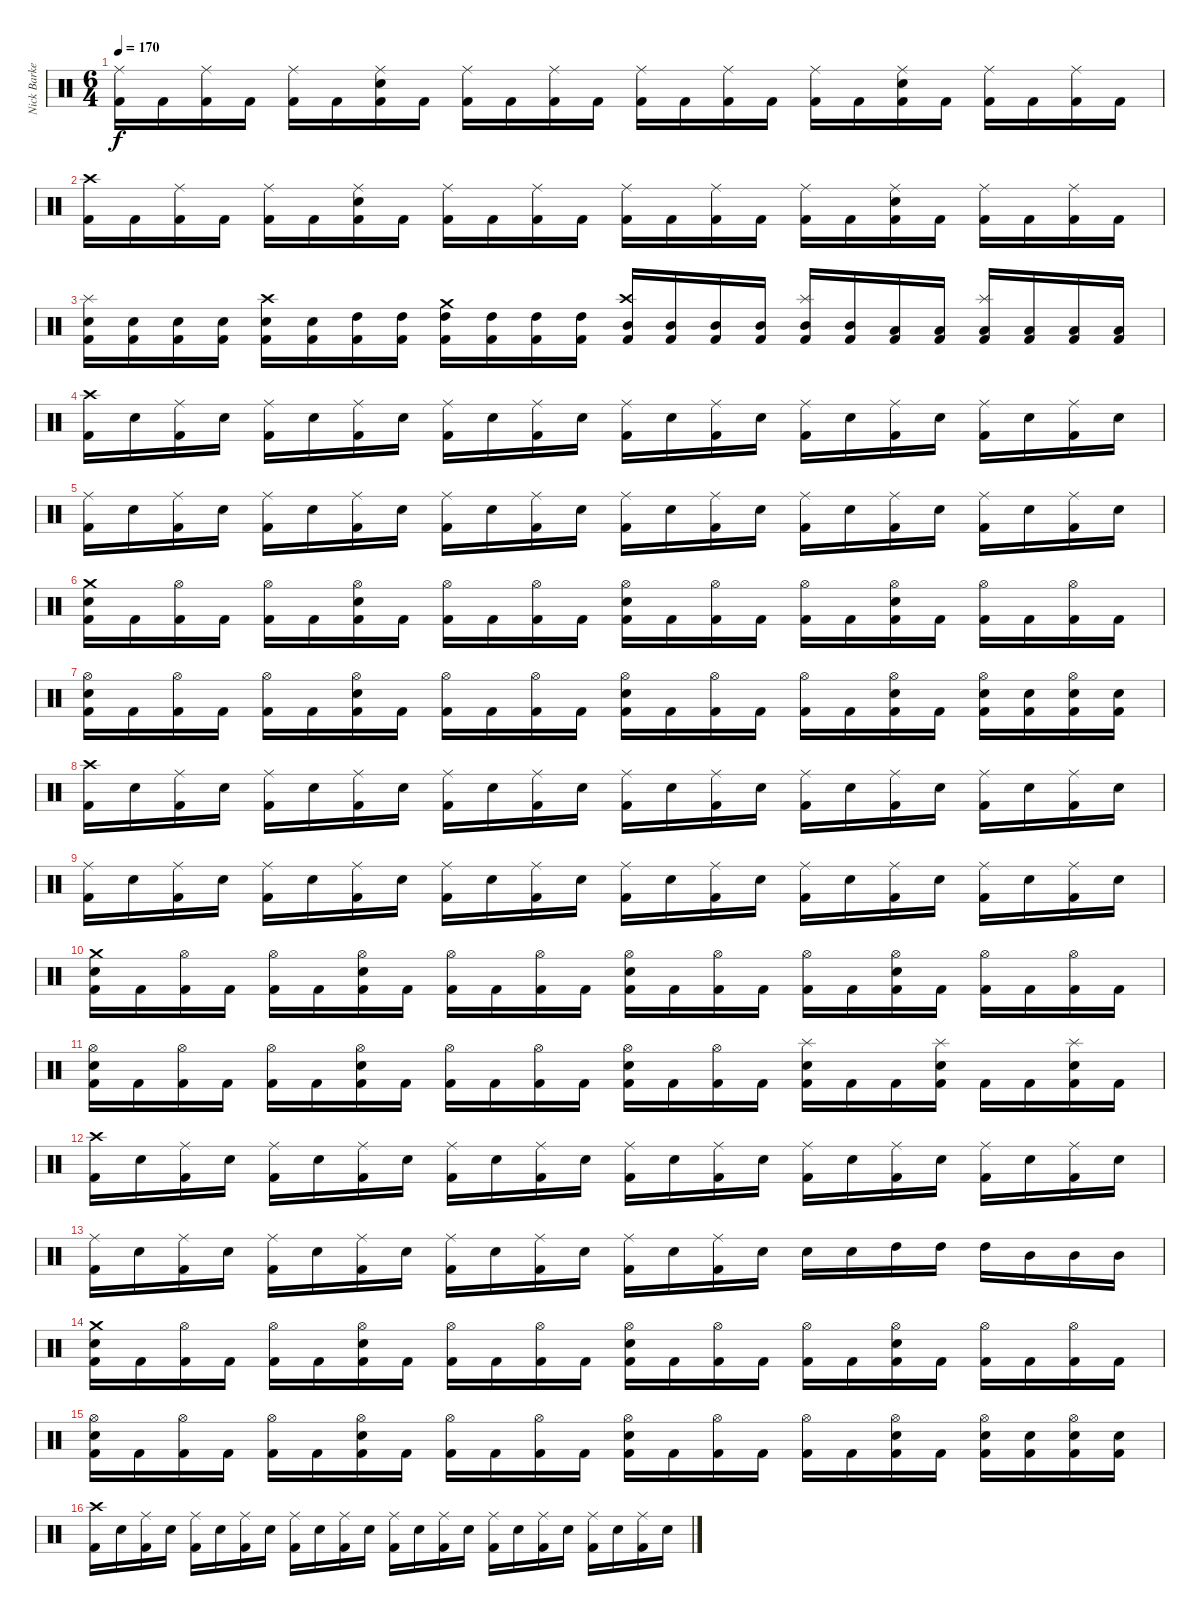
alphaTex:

\track ("Nick Barker" "Nick Barke") {instrument percussion}
\staff {score}
\articulation defaults
\ts (6 4)
\tempo 170
\clef neutral
\ks c
("Ride (middle)" "Kick (hit) 2").16{dy f} "Kick (hit) 2".16 ("Ride (middle)" "Kick (hit) 2").16 "Kick (hit) 2".16 ("Ride (middle)" "Kick (hit) 2").16 "Kick (hit) 2".16 ("Ride (middle)" "Electric Snare (hit)" "Kick (hit) 2").16 "Kick (hit) 2".16 ("Ride (middle)" "Kick (hit) 2").16 "Kick (hit) 2".16 ("Ride (middle)" "Kick (hit) 2").16 "Kick (hit) 2".16 ("Ride (middle)" "Kick (hit) 2").16 "Kick (hit) 2".16 ("Ride (middle)" "Kick (hit) 2").16 "Kick (hit) 2".16 ("Ride (middle)" "Kick (hit) 2").16 "Kick (hit) 2".16 ("Ride (middle)" "Electric Snare (hit)" "Kick (hit) 2").16 "Kick (hit) 2".16 ("Ride (middle)" "Kick (hit) 2").16 "Kick (hit) 2".16 ("Ride (middle)" "Kick (hit) 2").16 "Kick (hit) 2".16 |
("Crash high (hit)" "Kick (hit) 2").16 "Kick (hit) 2".16 ("Ride (middle)" "Kick (hit) 2").16 "Kick (hit) 2".16 ("Ride (middle)" "Kick (hit) 2").16 "Kick (hit) 2".16 ("Ride (middle)" "Electric Snare (hit)" "Kick (hit) 2").16 "Kick (hit) 2".16 ("Ride (middle)" "Kick (hit) 2").16 "Kick (hit) 2".16 ("Ride (middle)" "Kick (hit) 2").16 "Kick (hit) 2".16 ("Ride (middle)" "Kick (hit) 2").16 "Kick (hit) 2".16 ("Ride (middle)" "Kick (hit) 2").16 "Kick (hit) 2".16 ("Ride (middle)" "Kick (hit) 2").16 "Kick (hit) 2".16 ("Ride (middle)" "Electric Snare (hit)" "Kick (hit) 2").16 "Kick (hit) 2".16 ("Ride (middle)" "Kick (hit) 2").16 "Kick (hit) 2".16 ("Ride (middle)" "Kick (hit) 2").16 "Kick (hit) 2".16 |
("Splash (hit)" "Electric Snare (hit)" "Kick (hit) 2").16 ("Electric Snare (hit)" "Kick (hit) 2").16 ("Electric Snare (hit)" "Kick (hit) 2").16 ("Electric Snare (hit)" "Kick (hit) 2").16 ("Crash high (hit)" "Electric Snare (hit)" "Kick (hit) 2").16 ("Electric Snare (hit)" "Kick (hit) 2").16 ("High Tom (hit)" "Kick (hit) 2").16 ("High Tom (hit)" "Kick (hit) 2").16 ("Crash medium (hit)" "High Tom (hit)" "Kick (hit) 2").16 ("High Tom (hit)" "Kick (hit) 2").16 ("High Tom (hit)" "Kick (hit) 2").16 ("High Tom (hit)" "Kick (hit) 2").16 ("Crash high (hit)" "Mid Tom (hit)" "Kick (hit) 2").16 ("Mid Tom (hit)" "Kick (hit) 2").16 ("Mid Tom (hit)" "Kick (hit) 2").16 ("Mid Tom (hit)" "Kick (hit) 2").16 ("Splash (hit)" "Mid Tom (hit)" "Kick (hit) 2").16 ("Mid Tom (hit)" "Kick (hit) 2").16 ("Low Tom (hit)" "Kick (hit) 2").16 ("Low Tom (hit)" "Kick (hit) 2").16 ("Splash (hit)" "Low Tom (hit)" "Kick (hit) 2").16 ("Low Tom (hit)" "Kick (hit) 2").16 ("Low Tom (hit)" "Kick (hit) 2").16 ("Low Tom (hit)" "Kick (hit) 2").16 |
\section ("" "")
("Crash high (hit)" "Kick (hit) 2").16 "Electric Snare (hit)".16 ("Ride (middle)" "Kick (hit) 2").16 "Electric Snare (hit)".16 ("Ride (middle)" "Kick (hit) 2").16 "Electric Snare (hit)".16 ("Ride (middle)" "Kick (hit) 2").16 "Electric Snare (hit)".16 ("Ride (middle)" "Kick (hit) 2").16 "Electric Snare (hit)".16 ("Ride (middle)" "Kick (hit) 2").16 "Electric Snare (hit)".16 ("Ride (middle)" "Kick (hit) 2").16 "Electric Snare (hit)".16 ("Ride (middle)" "Kick (hit) 2").16 "Electric Snare (hit)".16 ("Ride (middle)" "Kick (hit) 2").16 "Electric Snare (hit)".16 ("Ride (middle)" "Kick (hit) 2").16 "Electric Snare (hit)".16 ("Ride (middle)" "Kick (hit) 2").16 "Electric Snare (hit)".16 ("Ride (middle)" "Kick (hit) 2").16 "Electric Snare (hit)".16 |
("Ride (middle)" "Kick (hit) 2").16 "Electric Snare (hit)".16 ("Ride (middle)" "Kick (hit) 2").16 "Electric Snare (hit)".16 ("Ride (middle)" "Kick (hit) 2").16 "Electric Snare (hit)".16 ("Ride (middle)" "Kick (hit) 2").16 "Electric Snare (hit)".16 ("Ride (middle)" "Kick (hit) 2").16 "Electric Snare (hit)".16 ("Ride (middle)" "Kick (hit) 2").16 "Electric Snare (hit)".16 ("Ride (middle)" "Kick (hit) 2").16 "Electric Snare (hit)".16 ("Ride (middle)" "Kick (hit) 2").16 "Electric Snare (hit)".16 ("Ride (middle)" "Kick (hit) 2").16 "Electric Snare (hit)".16 ("Ride (middle)" "Kick (hit) 2").16 "Electric Snare (hit)".16 ("Ride (middle)" "Kick (hit) 2").16 "Electric Snare (hit)".16 ("Ride (middle)" "Kick (hit) 2").16 "Electric Snare (hit)".16 |
("Crash medium (hit)" "Electric Snare (hit)" "Kick (hit) 2").16 "Kick (hit) 2".16 ("Hi-Hat (open)" "Kick (hit) 2").16 "Kick (hit) 2".16 ("Hi-Hat (open)" "Kick (hit) 2").16 "Kick (hit) 2".16 ("Hi-Hat (open)" "Electric Snare (hit)" "Kick (hit) 2").16 "Kick (hit) 2".16 ("Hi-Hat (open)" "Kick (hit) 2").16 "Kick (hit) 2".16 ("Hi-Hat (open)" "Kick (hit) 2").16 "Kick (hit) 2".16 ("Hi-Hat (open)" "Electric Snare (hit)" "Kick (hit) 2").16 "Kick (hit) 2".16 ("Hi-Hat (open)" "Kick (hit) 2").16 "Kick (hit) 2".16 ("Hi-Hat (open)" "Kick (hit) 2").16 "Kick (hit) 2".16 ("Hi-Hat (open)" "Electric Snare (hit)" "Kick (hit) 2").16 "Kick (hit) 2".16 ("Hi-Hat (open)" "Kick (hit) 2").16 "Kick (hit) 2".16 ("Hi-Hat (open)" "Kick (hit) 2").16 "Kick (hit) 2".16 |
("Hi-Hat (open)" "Electric Snare (hit)" "Kick (hit) 2").16 "Kick (hit) 2".16 ("Hi-Hat (open)" "Kick (hit) 2").16 "Kick (hit) 2".16 ("Hi-Hat (open)" "Kick (hit) 2").16 "Kick (hit) 2".16 ("Hi-Hat (open)" "Electric Snare (hit)" "Kick (hit) 2").16 "Kick (hit) 2".16 ("Hi-Hat (open)" "Kick (hit) 2").16 "Kick (hit) 2".16 ("Hi-Hat (open)" "Kick (hit) 2").16 "Kick (hit) 2".16 ("Hi-Hat (open)" "Electric Snare (hit)" "Kick (hit) 2").16 "Kick (hit) 2".16 ("Hi-Hat (open)" "Kick (hit) 2").16 "Kick (hit) 2".16 ("Hi-Hat (open)" "Kick (hit) 2").16 "Kick (hit) 2".16 ("Hi-Hat (open)" "Electric Snare (hit)" "Kick (hit) 2").16 "Kick (hit) 2".16 ("Hi-Hat (open)" "Electric Snare (hit)" "Kick (hit) 2").16 ("Electric Snare (hit)" "Kick (hit) 2").16 ("Hi-Hat (open)" "Electric Snare (hit)" "Kick (hit) 2").16 ("Electric Snare (hit)" "Kick (hit) 2").16 |
("Crash high (hit)" "Kick (hit) 2").16 "Electric Snare (hit)".16 ("Ride (middle)" "Kick (hit) 2").16 "Electric Snare (hit)".16 ("Ride (middle)" "Kick (hit) 2").16 "Electric Snare (hit)".16 ("Ride (middle)" "Kick (hit) 2").16 "Electric Snare (hit)".16 ("Ride (middle)" "Kick (hit) 2").16 "Electric Snare (hit)".16 ("Ride (middle)" "Kick (hit) 2").16 "Electric Snare (hit)".16 ("Ride (middle)" "Kick (hit) 2").16 "Electric Snare (hit)".16 ("Ride (middle)" "Kick (hit) 2").16 "Electric Snare (hit)".16 ("Ride (middle)" "Kick (hit) 2").16 "Electric Snare (hit)".16 ("Ride (middle)" "Kick (hit) 2").16 "Electric Snare (hit)".16 ("Ride (middle)" "Kick (hit) 2").16 "Electric Snare (hit)".16 ("Ride (middle)" "Kick (hit) 2").16 "Electric Snare (hit)".16 |
("Ride (middle)" "Kick (hit) 2").16 "Electric Snare (hit)".16 ("Ride (middle)" "Kick (hit) 2").16 "Electric Snare (hit)".16 ("Ride (middle)" "Kick (hit) 2").16 "Electric Snare (hit)".16 ("Ride (middle)" "Kick (hit) 2").16 "Electric Snare (hit)".16 ("Ride (middle)" "Kick (hit) 2").16 "Electric Snare (hit)".16 ("Ride (middle)" "Kick (hit) 2").16 "Electric Snare (hit)".16 ("Ride (middle)" "Kick (hit) 2").16 "Electric Snare (hit)".16 ("Ride (middle)" "Kick (hit) 2").16 "Electric Snare (hit)".16 ("Ride (middle)" "Kick (hit) 2").16 "Electric Snare (hit)".16 ("Ride (middle)" "Kick (hit) 2").16 "Electric Snare (hit)".16 ("Ride (middle)" "Kick (hit) 2").16 "Electric Snare (hit)".16 ("Ride (middle)" "Kick (hit) 2").16 "Electric Snare (hit)".16 |
("Crash medium (hit)" "Electric Snare (hit)" "Kick (hit) 2").16 "Kick (hit) 2".16 ("Hi-Hat (open)" "Kick (hit) 2").16 "Kick (hit) 2".16 ("Hi-Hat (open)" "Kick (hit) 2").16 "Kick (hit) 2".16 ("Hi-Hat (open)" "Electric Snare (hit)" "Kick (hit) 2").16 "Kick (hit) 2".16 ("Hi-Hat (open)" "Kick (hit) 2").16 "Kick (hit) 2".16 ("Hi-Hat (open)" "Kick (hit) 2").16 "Kick (hit) 2".16 ("Hi-Hat (open)" "Electric Snare (hit)" "Kick (hit) 2").16 "Kick (hit) 2".16 ("Hi-Hat (open)" "Kick (hit) 2").16 "Kick (hit) 2".16 ("Hi-Hat (open)" "Kick (hit) 2").16 "Kick (hit) 2".16 ("Hi-Hat (open)" "Electric Snare (hit)" "Kick (hit) 2").16 "Kick (hit) 2".16 ("Hi-Hat (open)" "Kick (hit) 2").16 "Kick (hit) 2".16 ("Hi-Hat (open)" "Kick (hit) 2").16 "Kick (hit) 2".16 |
("Hi-Hat (open)" "Electric Snare (hit)" "Kick (hit) 2").16 "Kick (hit) 2".16 ("Hi-Hat (open)" "Kick (hit) 2").16 "Kick (hit) 2".16 ("Hi-Hat (open)" "Kick (hit) 2").16 "Kick (hit) 2".16 ("Hi-Hat (open)" "Electric Snare (hit)" "Kick (hit) 2").16 "Kick (hit) 2".16 ("Hi-Hat (open)" "Kick (hit) 2").16 "Kick (hit) 2".16 ("Hi-Hat (open)" "Kick (hit) 2").16 "Kick (hit) 2".16 ("Hi-Hat (open)" "Electric Snare (hit)" "Kick (hit) 2").16 "Kick (hit) 2".16 ("Hi-Hat (open)" "Kick (hit) 2").16 "Kick (hit) 2".16 ("Splash (hit)" "Electric Snare (hit)" "Kick (hit) 2").16 "Kick (hit) 2".16 "Kick (hit) 2".16 ("Splash (hit)" "Electric Snare (hit)" "Kick (hit) 2").16 "Kick (hit) 2".16 "Kick (hit) 2".16 ("Splash (hit)" "Electric Snare (hit)" "Kick (hit) 2").16 "Kick (hit) 2".16 |
("Crash high (hit)" "Kick (hit) 2").16 "Electric Snare (hit)".16 ("Ride (middle)" "Kick (hit) 2").16 "Electric Snare (hit)".16 ("Ride (middle)" "Kick (hit) 2").16 "Electric Snare (hit)".16 ("Ride (middle)" "Kick (hit) 2").16 "Electric Snare (hit)".16 ("Ride (middle)" "Kick (hit) 2").16 "Electric Snare (hit)".16 ("Ride (middle)" "Kick (hit) 2").16 "Electric Snare (hit)".16 ("Ride (middle)" "Kick (hit) 2").16 "Electric Snare (hit)".16 ("Ride (middle)" "Kick (hit) 2").16 "Electric Snare (hit)".16 ("Ride (middle)" "Kick (hit) 2").16 "Electric Snare (hit)".16 ("Ride (middle)" "Kick (hit) 2").16 "Electric Snare (hit)".16 ("Ride (middle)" "Kick (hit) 2").16 "Electric Snare (hit)".16 ("Ride (middle)" "Kick (hit) 2").16 "Electric Snare (hit)".16 |
("Ride (middle)" "Kick (hit) 2").16 "Electric Snare (hit)".16 ("Ride (middle)" "Kick (hit) 2").16 "Electric Snare (hit)".16 ("Ride (middle)" "Kick (hit) 2").16 "Electric Snare (hit)".16 ("Ride (middle)" "Kick (hit) 2").16 "Electric Snare (hit)".16 ("Ride (middle)" "Kick (hit) 2").16 "Electric Snare (hit)".16 ("Ride (middle)" "Kick (hit) 2").16 "Electric Snare (hit)".16 ("Ride (middle)" "Kick (hit) 2").16 "Electric Snare (hit)".16 ("Ride (middle)" "Kick (hit) 2").16 "Electric Snare (hit)".16 "Electric Snare (hit)".16 "Electric Snare (hit)".16 "High Tom (hit)".16 "High Tom (hit)".16 "High Tom (hit)".16 "Mid Tom (hit)".16 "Mid Tom (hit)".16 "Mid Tom (hit)".16 |
("Crash medium (hit)" "Electric Snare (hit)" "Kick (hit) 2").16 "Kick (hit) 2".16 ("Hi-Hat (open)" "Kick (hit) 2").16 "Kick (hit) 2".16 ("Hi-Hat (open)" "Kick (hit) 2").16 "Kick (hit) 2".16 ("Hi-Hat (open)" "Electric Snare (hit)" "Kick (hit) 2").16 "Kick (hit) 2".16 ("Hi-Hat (open)" "Kick (hit) 2").16 "Kick (hit) 2".16 ("Hi-Hat (open)" "Kick (hit) 2").16 "Kick (hit) 2".16 ("Hi-Hat (open)" "Electric Snare (hit)" "Kick (hit) 2").16 "Kick (hit) 2".16 ("Hi-Hat (open)" "Kick (hit) 2").16 "Kick (hit) 2".16 ("Hi-Hat (open)" "Kick (hit) 2").16 "Kick (hit) 2".16 ("Hi-Hat (open)" "Electric Snare (hit)" "Kick (hit) 2").16 "Kick (hit) 2".16 ("Hi-Hat (open)" "Kick (hit) 2").16 "Kick (hit) 2".16 ("Hi-Hat (open)" "Kick (hit) 2").16 "Kick (hit) 2".16 |
("Hi-Hat (open)" "Electric Snare (hit)" "Kick (hit) 2").16 "Kick (hit) 2".16 ("Hi-Hat (open)" "Kick (hit) 2").16 "Kick (hit) 2".16 ("Hi-Hat (open)" "Kick (hit) 2").16 "Kick (hit) 2".16 ("Hi-Hat (open)" "Electric Snare (hit)" "Kick (hit) 2").16 "Kick (hit) 2".16 ("Hi-Hat (open)" "Kick (hit) 2").16 "Kick (hit) 2".16 ("Hi-Hat (open)" "Kick (hit) 2").16 "Kick (hit) 2".16 ("Hi-Hat (open)" "Electric Snare (hit)" "Kick (hit) 2").16 "Kick (hit) 2".16 ("Hi-Hat (open)" "Kick (hit) 2").16 "Kick (hit) 2".16 ("Hi-Hat (open)" "Kick (hit) 2").16 "Kick (hit) 2".16 ("Hi-Hat (open)" "Electric Snare (hit)" "Kick (hit) 2").16 "Kick (hit) 2".16 ("Hi-Hat (open)" "Electric Snare (hit)" "Kick (hit) 2").16 ("Electric Snare (hit)" "Kick (hit) 2").16 ("Hi-Hat (open)" "Electric Snare (hit)" "Kick (hit) 2").16 ("Electric Snare (hit)" "Kick (hit) 2").16 |
("Crash high (hit)" "Kick (hit) 2").16 "Electric Snare (hit)".16 ("Ride (middle)" "Kick (hit) 2").16 "Electric Snare (hit)".16 ("Ride (middle)" "Kick (hit) 2").16 "Electric Snare (hit)".16 ("Ride (middle)" "Kick (hit) 2").16 "Electric Snare (hit)".16 ("Ride (middle)" "Kick (hit) 2").16 "Electric Snare (hit)".16 ("Ride (middle)" "Kick (hit) 2").16 "Electric Snare (hit)".16 ("Ride (middle)" "Kick (hit) 2").16 "Electric Snare (hit)".16 ("Ride (middle)" "Kick (hit) 2").16 "Electric Snare (hit)".16 ("Ride (middle)" "Kick (hit) 2").16 "Electric Snare (hit)".16 ("Ride (middle)" "Kick (hit) 2").16 "Electric Snare (hit)".16 ("Ride (middle)" "Kick (hit) 2").16 "Electric Snare (hit)".16 ("Ride (middle)" "Kick (hit) 2").16 "Electric Snare (hit)".16
